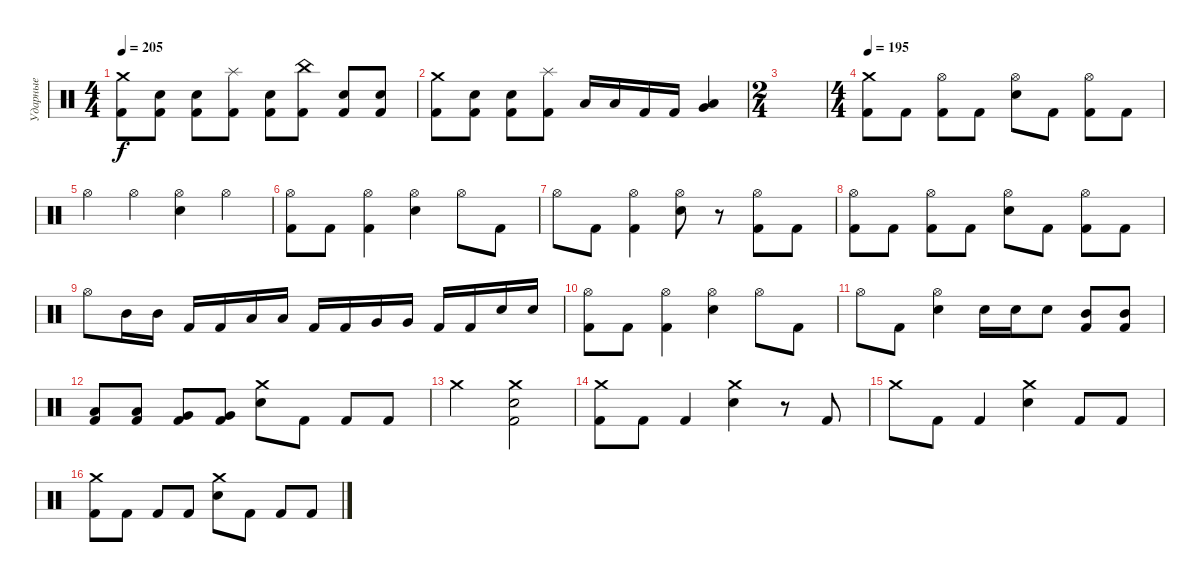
\track ("Ударные" "Ударные") {instrument percussion}
\staff {score}
\articulation defaults
\ts (4 4)
\tempo 205
\clef neutral
\ks c
("Crash medium (hit)" "Kick (hit) 2").8{dy f} ("Electric Snare (hit)" "Kick (hit) 2").8 ("Electric Snare (hit)" "Kick (hit) 2").8 ("Splash (hit)" "Kick (hit) 2").8 ("Electric Snare (hit)" "Kick (hit) 2").8 ("China (hit)" "Kick (hit) 2").8 ("Electric Snare (hit)" "Kick (hit) 2").8 ("Electric Snare (hit)" "Kick (hit) 2").8 |
("Crash medium (hit)" "Kick (hit) 2").8 ("Electric Snare (hit)" "Kick (hit) 2").8 ("Electric Snare (hit)" "Kick (hit) 2").8 ("Splash (hit)" "Kick (hit) 2").8 "Low Tom (hit)".16 "Low Tom (hit)".16 "Kick (hit) 2".16 "Kick (hit) 2".16 ("Low Tom (hit)" "Very Low Tom (hit)").4 |
\ts (2 4)
|
\ts (4 4)
\tempo 195
("Crash medium (hit)" "Kick (hit) 2").8 "Kick (hit) 2".8 ("Hi-Hat (open)" "Kick (hit) 2").8 "Kick (hit) 2".8 ("Hi-Hat (open)" "Electric Snare (hit)").8 "Kick (hit) 2".8 ("Hi-Hat (open)" "Kick (hit) 2").8 "Kick (hit) 2".8 |
"Hi-Hat (open)".4 "Hi-Hat (open)".4 ("Hi-Hat (open)" "Electric Snare (hit)").4 "Hi-Hat (open)".4 |
("Hi-Hat (open)" "Kick (hit) 2").8 "Kick (hit) 2".8 ("Hi-Hat (open)" "Kick (hit) 2").4 ("Hi-Hat (open)" "Electric Snare (hit)").4 "Hi-Hat (open)".8 "Kick (hit) 2".8 |
"Hi-Hat (open)".8 "Kick (hit) 2".8 ("Hi-Hat (open)" "Kick (hit) 2").4 ("Hi-Hat (open)" "Electric Snare (hit)").8 r.8 ("Hi-Hat (open)" "Kick (hit) 2").8 "Kick (hit) 2".8 |
("Hi-Hat (open)" "Kick (hit) 2").8 "Kick (hit) 2".8 ("Hi-Hat (open)" "Kick (hit) 2").8 "Kick (hit) 2".8 ("Hi-Hat (open)" "Electric Snare (hit)").8 "Kick (hit) 2".8 ("Hi-Hat (open)" "Kick (hit) 2").8 "Kick (hit) 2".8 |
"Hi-Hat (open)".8 "Mid Tom (hit)".16 "Mid Tom (hit)".16 "Kick (hit) 2".16 "Kick (hit) 2".16 "Low Tom (hit)".16 "Low Tom (hit)".16 "Kick (hit) 2".16 "Kick (hit) 2".16 "Very Low Tom (hit)".16 "Very Low Tom (hit)".16 "Kick (hit) 2".16 "Kick (hit) 2".16 "Electric Snare (hit)".16 "Electric Snare (hit)".16 |
("Hi-Hat (open)" "Kick (hit) 2").8 "Kick (hit) 2".8 ("Hi-Hat (open)" "Kick (hit) 2").4 ("Hi-Hat (open)" "Electric Snare (hit)").4 "Hi-Hat (open)".8 "Kick (hit) 2".8 |
"Hi-Hat (open)".8 "Kick (hit) 2".8 ("Hi-Hat (open)" "Electric Snare (hit)").4 "Electric Snare (hit)".16 "Electric Snare (hit)".16 "Electric Snare (hit)".8 ("Mid Tom (hit)" "Kick (hit) 2").8 ("Mid Tom (hit)" "Kick (hit) 2").8 |
("Low Tom (hit)" "Kick (hit) 2").8 ("Low Tom (hit)" "Kick (hit) 2").8 ("Very Low Tom (hit)" "Kick (hit) 2").8 ("Very Low Tom (hit)" "Kick (hit) 2").8 ("Crash medium (hit)" "Electric Snare (hit)").8 "Kick (hit) 2".8 "Kick (hit) 2".8 "Kick (hit) 2".8 |
"Crash medium (hit)".2 ("Crash medium (hit)" "Electric Snare (hit)" "Kick (hit) 2").2 |
("Crash medium (hit)" "Kick (hit) 2").8 "Kick (hit) 2".8 "Kick (hit) 2".4 ("Crash medium (hit)" "Electric Snare (hit)").4 r.8 "Kick (hit) 2".8 |
"Crash medium (hit)".8 "Kick (hit) 2".8 "Kick (hit) 2".4 ("Crash medium (hit)" "Electric Snare (hit)").4 "Kick (hit) 2".8 "Kick (hit) 2".8 |
("Crash medium (hit)" "Kick (hit) 2").8 "Kick (hit) 2".8 "Kick (hit) 2".8 "Kick (hit) 2".8 ("Crash medium (hit)" "Electric Snare (hit)").8 "Kick (hit) 2".8 "Kick (hit) 2".8 "Kick (hit) 2".8
